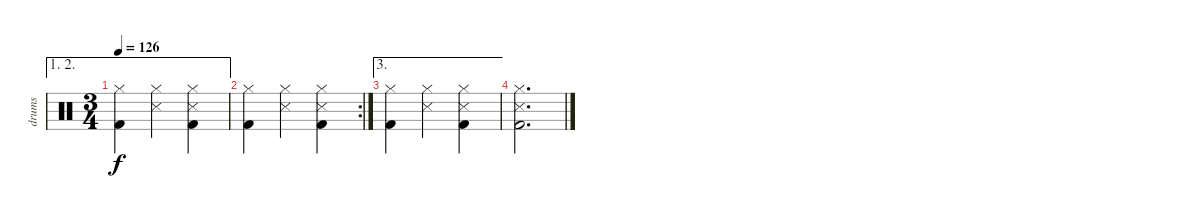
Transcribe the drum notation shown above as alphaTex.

\track ("drums" "drums") {instrument percussion}
\staff {score}
\articulation defaults
\ae (1 2)
\ts (3 4)
\tempo 126
\clef neutral
\ks c
("Hi-Hat (closed)" "Kick (hit) 2").4{dy f} ("Hi-Hat (closed)" "Snare (side stick) 3").4 ("Hi-Hat (closed)" "Snare (side stick) 3" "Kick (hit) 2").4 |
\rc 2
("Hi-Hat (closed)" "Kick (hit) 2").4 ("Hi-Hat (closed)" "Snare (side stick) 3").4 ("Hi-Hat (closed)" "Snare (side stick) 3" "Kick (hit) 2").4 |
\ae 3
("Hi-Hat (closed)" "Kick (hit) 2").4 ("Hi-Hat (closed)" "Snare (side stick) 3").4 ("Hi-Hat (closed)" "Snare (side stick) 3" "Kick (hit) 2").4 |
("Hi-Hat (closed)" "Snare (side stick) 3" "Kick (hit) 2").2{d}
